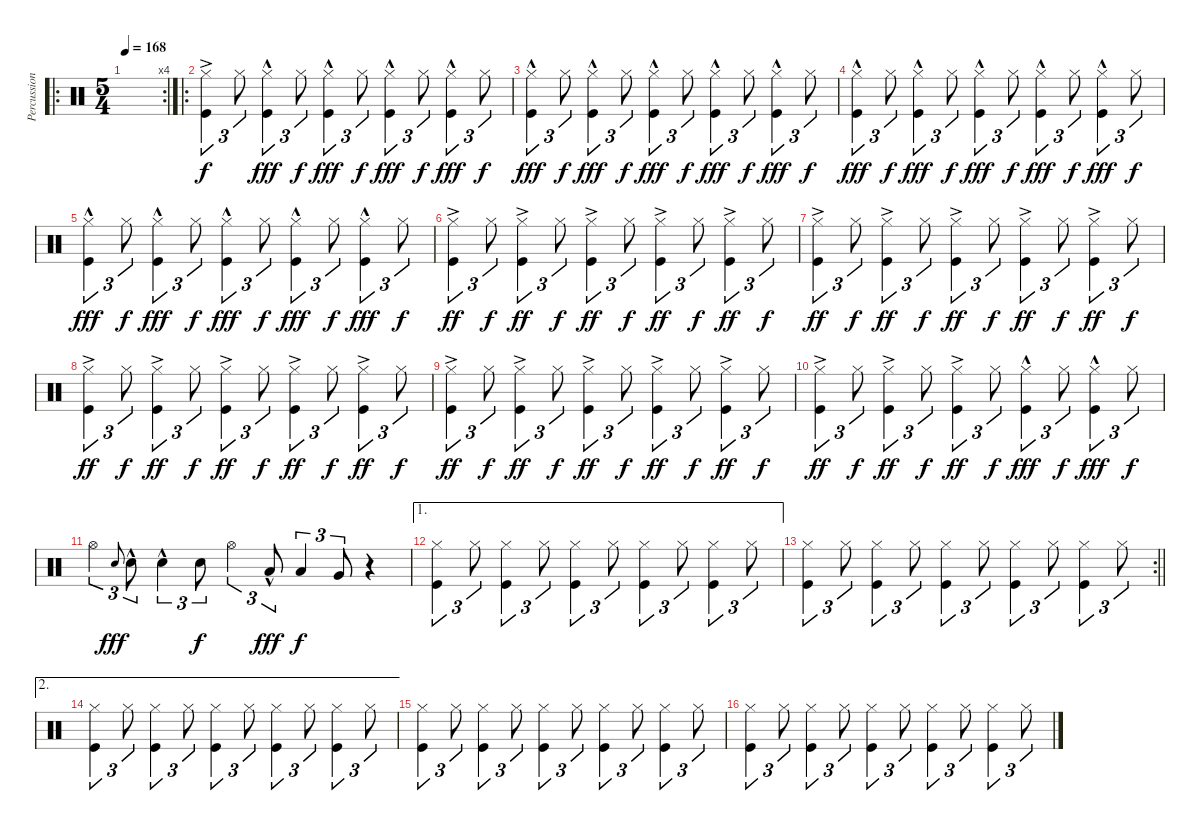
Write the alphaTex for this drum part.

\track ("Percussions" "Percussion") {instrument percussion}
\staff {score}
\articulation defaults
\ro
\rc 4
\ts (5 4)
\tempo 168
\clef neutral
\ks c
|
\ro
("Kick (hit)"{ac} "Hi-Hat (closed)").4{tu (3 2)} "Hi-Hat (closed)".8{tu (3 2) dy f} ("Kick (hit)"{hac} "Hi-Hat (closed)").4{tu (3 2) dy fff} "Hi-Hat (closed)".8{tu (3 2) dy f} ("Kick (hit)"{hac} "Hi-Hat (closed)").4{tu (3 2) dy fff} "Hi-Hat (closed)".8{tu (3 2) dy f} ("Kick (hit)"{hac} "Hi-Hat (closed)").4{tu (3 2) dy fff} "Hi-Hat (closed)".8{tu (3 2) dy f} ("Kick (hit)"{hac} "Hi-Hat (closed)").4{tu (3 2) dy fff} "Hi-Hat (closed)".8{tu (3 2) dy f} |
("Kick (hit)"{hac} "Hi-Hat (closed)").4{tu (3 2) dy fff} "Hi-Hat (closed)".8{tu (3 2) dy f} ("Kick (hit)"{hac} "Hi-Hat (closed)").4{tu (3 2) dy fff} "Hi-Hat (closed)".8{tu (3 2) dy f} ("Kick (hit)"{hac} "Hi-Hat (closed)").4{tu (3 2) dy fff} "Hi-Hat (closed)".8{tu (3 2) dy f} ("Kick (hit)"{hac} "Hi-Hat (closed)").4{tu (3 2) dy fff} "Hi-Hat (closed)".8{tu (3 2) dy f} ("Kick (hit)"{hac} "Hi-Hat (closed)").4{tu (3 2) dy fff} "Hi-Hat (closed)".8{tu (3 2) dy f} |
("Kick (hit)"{hac} "Hi-Hat (closed)").4{tu (3 2) dy fff} "Hi-Hat (closed)".8{tu (3 2) dy f} ("Kick (hit)"{hac} "Hi-Hat (closed)").4{tu (3 2) dy fff} "Hi-Hat (closed)".8{tu (3 2) dy f} ("Kick (hit)"{hac} "Hi-Hat (closed)").4{tu (3 2) dy fff} "Hi-Hat (closed)".8{tu (3 2) dy f} ("Kick (hit)"{hac} "Hi-Hat (closed)").4{tu (3 2) dy fff} "Hi-Hat (closed)".8{tu (3 2) dy f} ("Kick (hit)"{hac} "Hi-Hat (closed)").4{tu (3 2) dy fff} "Hi-Hat (closed)".8{tu (3 2) dy f} |
("Kick (hit)"{hac} "Hi-Hat (closed)").4{tu (3 2) dy fff} "Hi-Hat (closed)".8{tu (3 2) dy f} ("Kick (hit)"{hac} "Hi-Hat (closed)").4{tu (3 2) dy fff} "Hi-Hat (closed)".8{tu (3 2) dy f} ("Kick (hit)"{hac} "Hi-Hat (closed)").4{tu (3 2) dy fff} "Hi-Hat (closed)".8{tu (3 2) dy f} ("Kick (hit)"{hac} "Hi-Hat (closed)").4{tu (3 2) dy fff} "Hi-Hat (closed)".8{tu (3 2) dy f} ("Kick (hit)"{hac} "Hi-Hat (closed)").4{tu (3 2) dy fff} "Hi-Hat (closed)".8{tu (3 2) dy f} |
("Kick (hit)"{ac} "Hi-Hat (closed)").4{tu (3 2) dy ff} "Hi-Hat (closed)".8{tu (3 2) dy f} ("Kick (hit)"{ac} "Hi-Hat (closed)").4{tu (3 2) dy ff} "Hi-Hat (closed)".8{tu (3 2) dy f} ("Kick (hit)"{ac} "Hi-Hat (closed)").4{tu (3 2) dy ff} "Hi-Hat (closed)".8{tu (3 2) dy f} ("Kick (hit)"{ac} "Hi-Hat (closed)").4{tu (3 2) dy ff} "Hi-Hat (closed)".8{tu (3 2) dy f} ("Kick (hit)"{ac} "Hi-Hat (closed)").4{tu (3 2) dy ff} "Hi-Hat (closed)".8{tu (3 2) dy f} |
("Kick (hit)"{ac} "Hi-Hat (closed)").4{tu (3 2) dy ff} "Hi-Hat (closed)".8{tu (3 2) dy f} ("Kick (hit)"{ac} "Hi-Hat (closed)").4{tu (3 2) dy ff} "Hi-Hat (closed)".8{tu (3 2) dy f} ("Kick (hit)"{ac} "Hi-Hat (closed)").4{tu (3 2) dy ff} "Hi-Hat (closed)".8{tu (3 2) dy f} ("Kick (hit)"{ac} "Hi-Hat (closed)").4{tu (3 2) dy ff} "Hi-Hat (closed)".8{tu (3 2) dy f} ("Kick (hit)"{ac} "Hi-Hat (closed)").4{tu (3 2) dy ff} "Hi-Hat (closed)".8{tu (3 2) dy f} |
("Kick (hit)"{ac} "Hi-Hat (closed)").4{tu (3 2) dy ff} "Hi-Hat (closed)".8{tu (3 2) dy f} ("Kick (hit)"{ac} "Hi-Hat (closed)").4{tu (3 2) dy ff} "Hi-Hat (closed)".8{tu (3 2) dy f} ("Kick (hit)"{ac} "Hi-Hat (closed)").4{tu (3 2) dy ff} "Hi-Hat (closed)".8{tu (3 2) dy f} ("Kick (hit)"{ac} "Hi-Hat (closed)").4{tu (3 2) dy ff} "Hi-Hat (closed)".8{tu (3 2) dy f} ("Kick (hit)"{ac} "Hi-Hat (closed)").4{tu (3 2) dy ff} "Hi-Hat (closed)".8{tu (3 2) dy f} |
("Kick (hit)"{ac} "Hi-Hat (closed)").4{tu (3 2) dy ff} "Hi-Hat (closed)".8{tu (3 2) dy f} ("Kick (hit)"{ac} "Hi-Hat (closed)").4{tu (3 2) dy ff} "Hi-Hat (closed)".8{tu (3 2) dy f} ("Kick (hit)"{ac} "Hi-Hat (closed)").4{tu (3 2) dy ff} "Hi-Hat (closed)".8{tu (3 2) dy f} ("Kick (hit)"{ac} "Hi-Hat (closed)").4{tu (3 2) dy ff} "Hi-Hat (closed)".8{tu (3 2) dy f} ("Kick (hit)"{ac} "Hi-Hat (closed)").4{tu (3 2) dy ff} "Hi-Hat (closed)".8{tu (3 2) dy f} |
("Kick (hit)"{ac} "Hi-Hat (closed)").4{tu (3 2) dy ff} "Hi-Hat (closed)".8{tu (3 2) dy f} ("Kick (hit)"{ac} "Hi-Hat (closed)").4{tu (3 2) dy ff} "Hi-Hat (closed)".8{tu (3 2) dy f} ("Kick (hit)"{ac} "Hi-Hat (closed)").4{tu (3 2) dy ff} "Hi-Hat (closed)".8{tu (3 2) dy f} ("Kick (hit)"{hac} "Hi-Hat (closed)").4{tu (3 2) dy fff} "Hi-Hat (closed)".8{tu (3 2) dy f} ("Kick (hit)"{hac} "Hi-Hat (closed)").4{tu (3 2) dy fff} "Hi-Hat (closed)".8{tu (3 2) dy f} |
"Hi-Hat (open)".4{tu (3 2)} "Snare (hit) 2".8{gr onbeat dy fff} "Snare (hit) 2"{hac}.8{tu (3 2)} "Snare (hit) 2"{hac}.4{tu (3 2)} "Snare (hit) 2".8{tu (3 2) dy f} "Hi-Hat (open)".4{tu (3 2)} "Low Tom (hit)"{hac}.8{tu (3 2) dy fff} "Low Tom (hit)".4{tu (3 2) dy f} "Very Low Tom (hit)".8{tu (3 2)} r.4 |
\ae 1
("Kick (hit)" "Hi-Hat (closed)").4{tu (3 2)} "Hi-Hat (closed)".8{tu (3 2)} ("Kick (hit)" "Hi-Hat (closed)").4{tu (3 2)} "Hi-Hat (closed)".8{tu (3 2)} ("Kick (hit)" "Hi-Hat (closed)").4{tu (3 2)} "Hi-Hat (closed)".8{tu (3 2)} ("Kick (hit)" "Hi-Hat (closed)").4{tu (3 2)} "Hi-Hat (closed)".8{tu (3 2)} ("Kick (hit)" "Hi-Hat (closed)").4{tu (3 2)} "Hi-Hat (closed)".8{tu (3 2)} |
\rc 2
\barLineRight lightlight
("Kick (hit)" "Hi-Hat (closed)").4{tu (3 2)} "Hi-Hat (closed)".8{tu (3 2)} ("Kick (hit)" "Hi-Hat (closed)").4{tu (3 2)} "Hi-Hat (closed)".8{tu (3 2)} ("Kick (hit)" "Hi-Hat (closed)").4{tu (3 2)} "Hi-Hat (closed)".8{tu (3 2)} ("Kick (hit)" "Hi-Hat (closed)").4{tu (3 2)} "Hi-Hat (closed)".8{tu (3 2)} ("Kick (hit)" "Hi-Hat (closed)").4{tu (3 2)} "Hi-Hat (closed)".8{tu (3 2)} |
\ae 2
("Kick (hit)" "Hi-Hat (closed)").4{tu (3 2)} "Hi-Hat (closed)".8{tu (3 2)} ("Kick (hit)" "Hi-Hat (closed)").4{tu (3 2)} "Hi-Hat (closed)".8{tu (3 2)} ("Kick (hit)" "Hi-Hat (closed)").4{tu (3 2)} "Hi-Hat (closed)".8{tu (3 2)} ("Kick (hit)" "Hi-Hat (closed)").4{tu (3 2)} "Hi-Hat (closed)".8{tu (3 2)} ("Kick (hit)" "Hi-Hat (closed)").4{tu (3 2)} "Hi-Hat (closed)".8{tu (3 2)} |
("Kick (hit)" "Hi-Hat (closed)").4{tu (3 2)} "Hi-Hat (closed)".8{tu (3 2)} ("Kick (hit)" "Hi-Hat (closed)").4{tu (3 2)} "Hi-Hat (closed)".8{tu (3 2)} ("Kick (hit)" "Hi-Hat (closed)").4{tu (3 2)} "Hi-Hat (closed)".8{tu (3 2)} ("Kick (hit)" "Hi-Hat (closed)").4{tu (3 2)} "Hi-Hat (closed)".8{tu (3 2)} ("Kick (hit)" "Hi-Hat (closed)").4{tu (3 2)} "Hi-Hat (closed)".8{tu (3 2)} |
("Kick (hit)" "Hi-Hat (closed)").4{tu (3 2)} "Hi-Hat (closed)".8{tu (3 2)} ("Kick (hit)" "Hi-Hat (closed)").4{tu (3 2)} "Hi-Hat (closed)".8{tu (3 2)} ("Kick (hit)" "Hi-Hat (closed)").4{tu (3 2)} "Hi-Hat (closed)".8{tu (3 2)} ("Kick (hit)" "Hi-Hat (closed)").4{tu (3 2)} "Hi-Hat (closed)".8{tu (3 2)} ("Kick (hit)" "Hi-Hat (closed)").4{tu (3 2)} "Hi-Hat (closed)".8{tu (3 2)}
